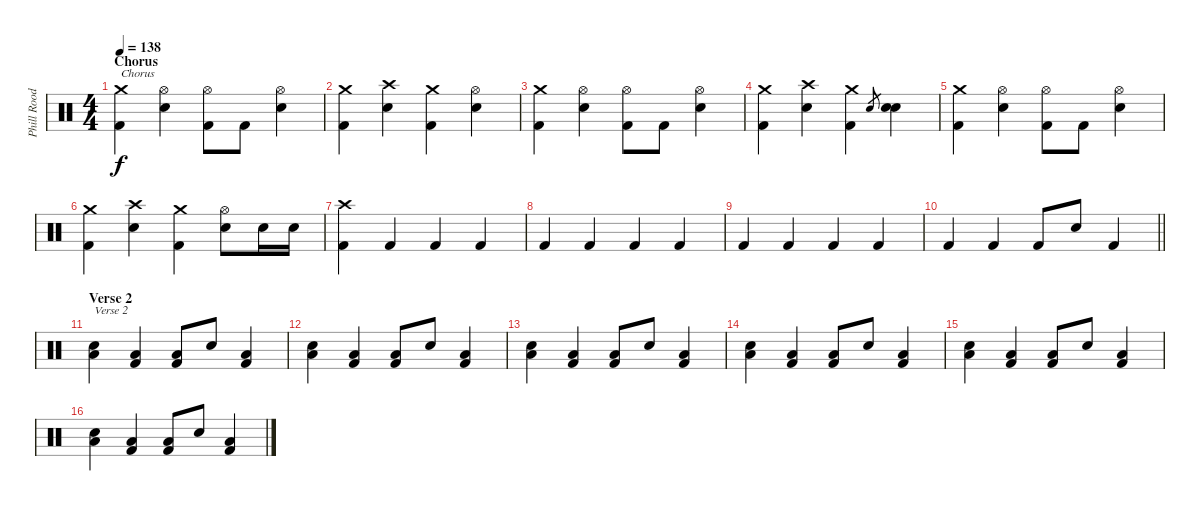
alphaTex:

\track ("Phill Rood" "Phill Rood") {instrument percussion}
\staff {score}
\articulation defaults
\ts (4 4)
\section ("" "Chorus")
\tempo 138
\clef neutral
\ks c
("Kick (hit) 2" "Crash medium (hit)").4{txt "Chorus" dy f} ("Snare (hit) 2" "Hi-Hat (open)").4 ("Kick (hit) 2" "Hi-Hat (open)").8 "Kick (hit) 2".8 ("Snare (hit) 2" "Hi-Hat (open)").4 |
("Kick (hit) 2" "Crash medium (hit)").4 ("Snare (hit) 2" "Crash high (hit)").4 ("Kick (hit) 2" "Crash medium (hit)").4 ("Snare (hit) 2" "Hi-Hat (open)").4 |
("Kick (hit) 2" "Crash medium (hit)").4 ("Snare (hit) 2" "Hi-Hat (open)").4 ("Kick (hit) 2" "Hi-Hat (open)").8 "Kick (hit) 2".8 ("Snare (hit) 2" "Hi-Hat (open)").4 |
("Kick (hit) 2" "Crash medium (hit)").4 ("Snare (hit) 2" "Crash high (hit)").4 ("Kick (hit) 2" "Crash medium (hit)").4 "Snare (hit) 2".8{gr} ("Snare (hit) 2" "Snare (hit) 2").4 |
("Kick (hit) 2" "Crash medium (hit)").4 ("Snare (hit) 2" "Hi-Hat (open)").4 ("Kick (hit) 2" "Hi-Hat (open)").8 "Kick (hit) 2".8 ("Snare (hit) 2" "Hi-Hat (open)").4 |
("Kick (hit) 2" "Crash medium (hit)").4 ("Snare (hit) 2" "Crash high (hit)").4 ("Kick (hit) 2" "Crash medium (hit)").4 ("Snare (hit) 2" "Hi-Hat (open)").8 "Snare (hit) 2".16 "Snare (hit) 2".16 |
("Kick (hit) 2" "Crash high (hit)").4 "Kick (hit) 2".4 "Kick (hit) 2".4 "Kick (hit) 2".4 |
"Kick (hit) 2".4 "Kick (hit) 2".4 "Kick (hit) 2".4 "Kick (hit) 2".4 |
"Kick (hit) 2".4 "Kick (hit) 2".4 "Kick (hit) 2".4 "Kick (hit) 2".4 |
\barLineRight lightlight "Kick (hit) 2".4 "Kick (hit) 2".4 "Kick (hit) 2".8 "Snare (hit) 2".8 "Kick (hit) 2".4
|
\section ("" "Verse 2")
("Snare (hit) 2" "Low Tom (hit)").4{txt "Verse 2"} ("Kick (hit) 2" "Low Tom (hit)").4 ("Kick (hit) 2" "Low Tom (hit)").8 "Snare (hit) 2".8 ("Kick (hit) 2" "Low Tom (hit)").4 |
("Snare (hit) 2" "Low Tom (hit)").4 ("Kick (hit) 2" "Low Tom (hit)").4 ("Kick (hit) 2" "Low Tom (hit)").8 "Snare (hit) 2".8 ("Kick (hit) 2" "Low Tom (hit)").4 |
("Snare (hit) 2" "Low Tom (hit)").4 ("Kick (hit) 2" "Low Tom (hit)").4 ("Kick (hit) 2" "Low Tom (hit)").8 "Snare (hit) 2".8 ("Kick (hit) 2" "Low Tom (hit)").4 |
("Snare (hit) 2" "Low Tom (hit)").4 ("Kick (hit) 2" "Low Tom (hit)").4 ("Kick (hit) 2" "Low Tom (hit)").8 "Snare (hit) 2".8 ("Kick (hit) 2" "Low Tom (hit)").4 |
("Snare (hit) 2" "Low Tom (hit)").4 ("Kick (hit) 2" "Low Tom (hit)").4 ("Kick (hit) 2" "Low Tom (hit)").8 "Snare (hit) 2".8 ("Kick (hit) 2" "Low Tom (hit)").4 |
("Snare (hit) 2" "Low Tom (hit)").4 ("Kick (hit) 2" "Low Tom (hit)").4 ("Kick (hit) 2" "Low Tom (hit)").8 "Snare (hit) 2".8 ("Kick (hit) 2" "Low Tom (hit)").4
